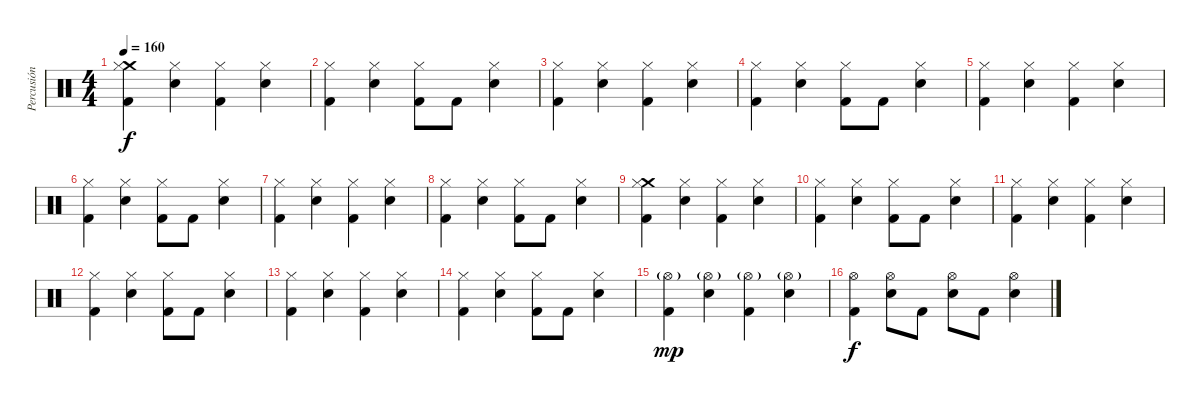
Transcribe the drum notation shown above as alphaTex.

\track ("Percusión" "Percusión") {instrument percussion}
\staff {score}
\articulation defaults
\ts (4 4)
\tempo 160
\clef neutral
\ks c
("Crash medium (hit)" "Hi-Hat (closed)" "Kick (hit) 2").4{dy f} ("Hi-Hat (closed)" "Snare (hit) 2").4 ("Hi-Hat (closed)" "Kick (hit) 2").4 ("Hi-Hat (closed)" "Snare (hit) 2").4 |
("Hi-Hat (closed)" "Kick (hit) 2").4 ("Hi-Hat (closed)" "Snare (hit) 2").4 ("Hi-Hat (closed)" "Kick (hit) 2").8 "Kick (hit) 2".8 ("Hi-Hat (closed)" "Snare (hit) 2").4 |
("Hi-Hat (closed)" "Kick (hit) 2").4 ("Hi-Hat (closed)" "Snare (hit) 2").4 ("Hi-Hat (closed)" "Kick (hit) 2").4 ("Hi-Hat (closed)" "Snare (hit) 2").4 |
("Hi-Hat (closed)" "Kick (hit) 2").4 ("Hi-Hat (closed)" "Snare (hit) 2").4 ("Hi-Hat (closed)" "Kick (hit) 2").8 "Kick (hit) 2".8 ("Hi-Hat (closed)" "Snare (hit) 2").4 |
("Hi-Hat (closed)" "Kick (hit) 2").4 ("Hi-Hat (closed)" "Snare (hit) 2").4 ("Hi-Hat (closed)" "Kick (hit) 2").4 ("Hi-Hat (closed)" "Snare (hit) 2").4 |
("Hi-Hat (closed)" "Kick (hit) 2").4 ("Hi-Hat (closed)" "Snare (hit) 2").4 ("Hi-Hat (closed)" "Kick (hit) 2").8 "Kick (hit) 2".8 ("Hi-Hat (closed)" "Snare (hit) 2").4 |
("Hi-Hat (closed)" "Kick (hit) 2").4 ("Hi-Hat (closed)" "Snare (hit) 2").4 ("Hi-Hat (closed)" "Kick (hit) 2").4 ("Hi-Hat (closed)" "Snare (hit) 2").4 |
("Hi-Hat (closed)" "Kick (hit) 2").4 ("Hi-Hat (closed)" "Snare (hit) 2").4 ("Hi-Hat (closed)" "Kick (hit) 2").8 "Kick (hit) 2".8 ("Hi-Hat (closed)" "Snare (hit) 2").4 |
("Crash medium (hit)" "Hi-Hat (closed)" "Kick (hit) 2").4 ("Hi-Hat (closed)" "Snare (hit) 2").4 ("Hi-Hat (closed)" "Kick (hit) 2").4 ("Hi-Hat (closed)" "Snare (hit) 2").4 |
("Hi-Hat (closed)" "Kick (hit) 2").4 ("Hi-Hat (closed)" "Snare (hit) 2").4 ("Hi-Hat (closed)" "Kick (hit) 2").8 "Kick (hit) 2".8 ("Hi-Hat (closed)" "Snare (hit) 2").4 |
("Hi-Hat (closed)" "Kick (hit) 2").4 ("Hi-Hat (closed)" "Snare (hit) 2").4 ("Hi-Hat (closed)" "Kick (hit) 2").4 ("Hi-Hat (closed)" "Snare (hit) 2").4 |
("Hi-Hat (closed)" "Kick (hit) 2").4 ("Hi-Hat (closed)" "Snare (hit) 2").4 ("Hi-Hat (closed)" "Kick (hit) 2").8 "Kick (hit) 2".8 ("Hi-Hat (closed)" "Snare (hit) 2").4 |
("Hi-Hat (closed)" "Kick (hit) 2").4 ("Hi-Hat (closed)" "Snare (hit) 2").4 ("Hi-Hat (closed)" "Kick (hit) 2").4 ("Hi-Hat (closed)" "Snare (hit) 2").4 |
("Hi-Hat (closed)" "Kick (hit) 2").4 ("Hi-Hat (closed)" "Snare (hit) 2").4 ("Hi-Hat (closed)" "Kick (hit) 2").8 "Kick (hit) 2".8 ("Hi-Hat (closed)" "Snare (hit) 2").4 |
("Hi-Hat (open)"{g} "Kick (hit) 2").4{dy mp} ("Hi-Hat (open)"{g} "Snare (hit) 2").4 ("Hi-Hat (open)"{g} "Kick (hit) 2").4 ("Hi-Hat (open)"{g} "Snare (hit) 2").4 |
("Hi-Hat (open)" "Kick (hit) 2").4{dy f} ("Hi-Hat (open)" "Snare (hit) 2").8 "Kick (hit) 2".8 ("Hi-Hat (open)" "Snare (hit) 2").8 "Kick (hit) 2".8 ("Hi-Hat (open)" "Snare (hit) 2").4
